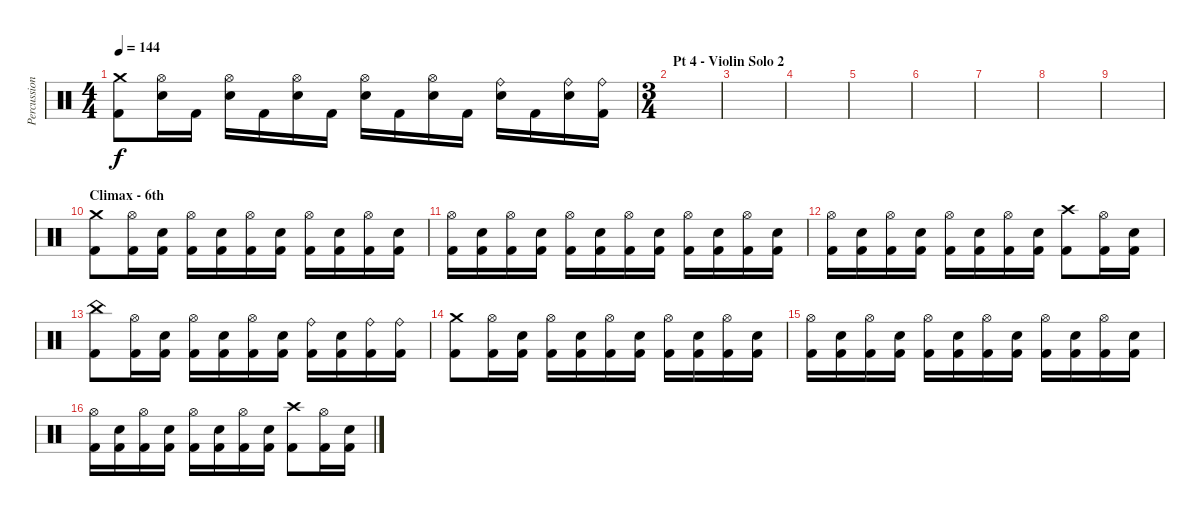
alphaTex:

\track ("Percussion" "Percussion") {instrument percussion}
\staff {score}
\articulation defaults
\ts (4 4)
\tempo 144
\clef neutral
\ks c
("Crash medium (hit)" "Kick (hit) 2").8{dy f} ("Hi-Hat (open)" "Electric Snare (hit)").16 "Kick (hit) 2".16 ("Hi-Hat (open)" "Electric Snare (hit)").16 "Kick (hit) 2".16 ("Hi-Hat (open)" "Electric Snare (hit)").16 "Kick (hit) 2".16 ("Hi-Hat (open)" "Electric Snare (hit)").16 "Kick (hit) 2".16 ("Hi-Hat (open)" "Electric Snare (hit)").16 "Kick (hit) 2".16 ("Ride (bell)" "Electric Snare (hit)").16 "Kick (hit) 2".16 ("Ride (bell)" "Electric Snare (hit)").16 ("Ride (bell)" "Kick (hit) 2").16 |
\ts (3 4)
\section ("" "Pt 4 - Violin Solo 2")
|
|
|
|
|
|
|
|
\section ("" "Climax - 6th")
("Crash medium (hit)" "Kick (hit) 2").8 ("Hi-Hat (open)" "Kick (hit) 2").16 ("Electric Snare (hit)" "Kick (hit) 2").16 ("Hi-Hat (open)" "Kick (hit) 2").16 ("Electric Snare (hit)" "Kick (hit) 2").16 ("Hi-Hat (open)" "Kick (hit) 2").16 ("Electric Snare (hit)" "Kick (hit) 2").16 ("Hi-Hat (open)" "Kick (hit) 2").16 ("Electric Snare (hit)" "Kick (hit) 2").16 ("Hi-Hat (open)" "Kick (hit) 2").16 ("Electric Snare (hit)" "Kick (hit) 2").16 |
("Hi-Hat (open)" "Kick (hit) 2").16 ("Electric Snare (hit)" "Kick (hit) 2").16 ("Hi-Hat (open)" "Kick (hit) 2").16 ("Electric Snare (hit)" "Kick (hit) 2").16 ("Hi-Hat (open)" "Kick (hit) 2").16 ("Electric Snare (hit)" "Kick (hit) 2").16 ("Hi-Hat (open)" "Kick (hit) 2").16 ("Electric Snare (hit)" "Kick (hit) 2").16 ("Hi-Hat (open)" "Kick (hit) 2").16 ("Electric Snare (hit)" "Kick (hit) 2").16 ("Hi-Hat (open)" "Kick (hit) 2").16 ("Electric Snare (hit)" "Kick (hit) 2").16 |
("Hi-Hat (open)" "Kick (hit) 2").16 ("Electric Snare (hit)" "Kick (hit) 2").16 ("Hi-Hat (open)" "Kick (hit) 2").16 ("Electric Snare (hit)" "Kick (hit) 2").16 ("Hi-Hat (open)" "Kick (hit) 2").16 ("Electric Snare (hit)" "Kick (hit) 2").16 ("Hi-Hat (open)" "Kick (hit) 2").16 ("Electric Snare (hit)" "Kick (hit) 2").16 ("Crash high (hit)" "Kick (hit) 2").8 ("Hi-Hat (open)" "Kick (hit) 2").16 ("Electric Snare (hit)" "Kick (hit) 2").16 |
("China (hit)" "Kick (hit) 2").8 ("Hi-Hat (open)" "Kick (hit) 2").16 ("Electric Snare (hit)" "Kick (hit) 2").16 ("Hi-Hat (open)" "Kick (hit) 2").16 ("Electric Snare (hit)" "Kick (hit) 2").16 ("Hi-Hat (open)" "Kick (hit) 2").16 ("Electric Snare (hit)" "Kick (hit) 2").16 ("Ride (bell)" "Kick (hit) 2").16 ("Electric Snare (hit)" "Kick (hit) 2").16 ("Ride (bell)" "Kick (hit) 2").16 ("Ride (bell)" "Kick (hit) 2").16 |
("Crash medium (hit)" "Kick (hit) 2").8 ("Hi-Hat (open)" "Kick (hit) 2").16 ("Electric Snare (hit)" "Kick (hit) 2").16 ("Hi-Hat (open)" "Kick (hit) 2").16 ("Electric Snare (hit)" "Kick (hit) 2").16 ("Hi-Hat (open)" "Kick (hit) 2").16 ("Electric Snare (hit)" "Kick (hit) 2").16 ("Hi-Hat (open)" "Kick (hit) 2").16 ("Electric Snare (hit)" "Kick (hit) 2").16 ("Hi-Hat (open)" "Kick (hit) 2").16 ("Electric Snare (hit)" "Kick (hit) 2").16 |
("Hi-Hat (open)" "Kick (hit) 2").16 ("Electric Snare (hit)" "Kick (hit) 2").16 ("Hi-Hat (open)" "Kick (hit) 2").16 ("Electric Snare (hit)" "Kick (hit) 2").16 ("Hi-Hat (open)" "Kick (hit) 2").16 ("Electric Snare (hit)" "Kick (hit) 2").16 ("Hi-Hat (open)" "Kick (hit) 2").16 ("Electric Snare (hit)" "Kick (hit) 2").16 ("Hi-Hat (open)" "Kick (hit) 2").16 ("Electric Snare (hit)" "Kick (hit) 2").16 ("Hi-Hat (open)" "Kick (hit) 2").16 ("Electric Snare (hit)" "Kick (hit) 2").16 |
("Hi-Hat (open)" "Kick (hit) 2").16 ("Electric Snare (hit)" "Kick (hit) 2").16 ("Hi-Hat (open)" "Kick (hit) 2").16 ("Electric Snare (hit)" "Kick (hit) 2").16 ("Hi-Hat (open)" "Kick (hit) 2").16 ("Electric Snare (hit)" "Kick (hit) 2").16 ("Hi-Hat (open)" "Kick (hit) 2").16 ("Electric Snare (hit)" "Kick (hit) 2").16 ("Crash high (hit)" "Kick (hit) 2").8 ("Hi-Hat (open)" "Kick (hit) 2").16 ("Electric Snare (hit)" "Kick (hit) 2").16
